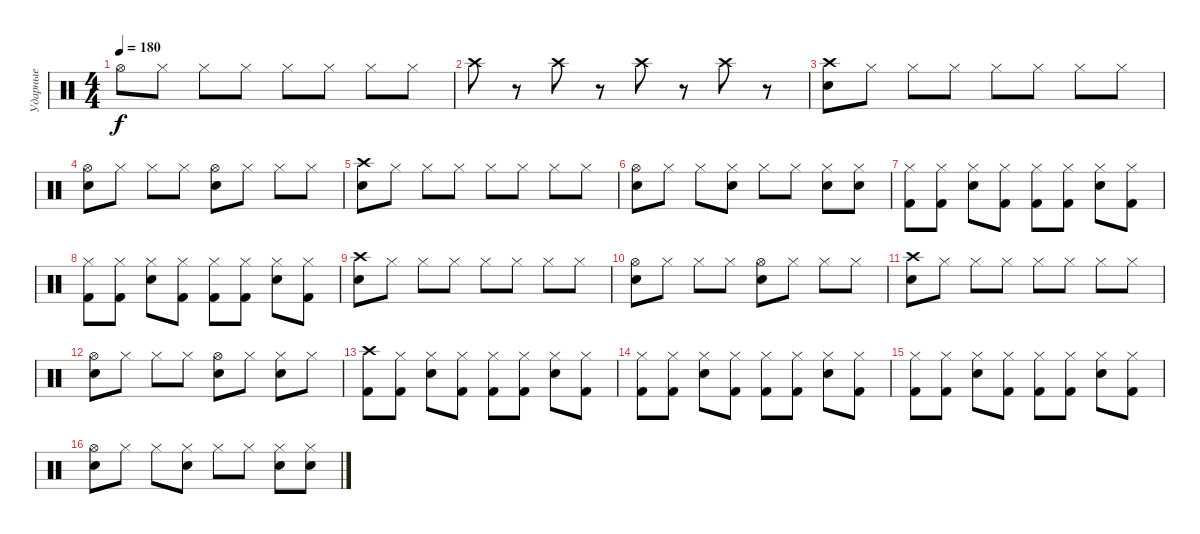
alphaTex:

\track ("Ударные" "Ударные") {instrument percussion}
\staff {score}
\articulation defaults
\ts (4 4)
\tempo 180
\clef neutral
\ks c "Hi-Hat (open)".8{dy f} "Hi-Hat (closed)".8 "Hi-Hat (closed)".8 "Hi-Hat (closed)".8 "Hi-Hat (closed)".8 "Hi-Hat (closed)".8 "Hi-Hat (closed)".8 "Hi-Hat (closed)".8
|
"Crash high (hit)".8 r.8 "Crash high (hit)".8 r.8 "Crash high (hit)".8 r.8 "Crash high (hit)".8 r.8 |
("Electric Snare (hit)" "Crash high (hit)").8 "Hi-Hat (closed)".8 "Hi-Hat (closed)".8 "Hi-Hat (closed)".8 "Hi-Hat (closed)".8 "Hi-Hat (closed)".8 "Hi-Hat (closed)".8 "Hi-Hat (closed)".8 |
("Electric Snare (hit)" "Hi-Hat (open)").8 "Hi-Hat (closed)".8 "Hi-Hat (closed)".8 "Hi-Hat (closed)".8 ("Snare (hit) 2" "Hi-Hat (open)").8 "Hi-Hat (closed)".8 "Hi-Hat (closed)".8 "Hi-Hat (closed)".8 |
("Electric Snare (hit)" "Crash high (hit)").8 "Hi-Hat (closed)".8 "Hi-Hat (closed)".8 "Hi-Hat (closed)".8 "Hi-Hat (closed)".8 "Hi-Hat (closed)".8 "Hi-Hat (closed)".8 "Hi-Hat (closed)".8 |
("Hi-Hat (open)" "Snare (hit) 2").8 "Hi-Hat (closed)".8 "Hi-Hat (closed)".8 ("Snare (hit) 2" "Hi-Hat (closed)").8 "Hi-Hat (closed)".8 "Hi-Hat (closed)".8 ("Hi-Hat (closed)" "Snare (hit) 2").8 ("Hi-Hat (closed)" "Snare (hit) 2").8 |
("Hi-Hat (closed)" "Kick (hit) 2").8 ("Hi-Hat (closed)" "Kick (hit) 2").8 ("Hi-Hat (closed)" "Snare (hit) 2").8 ("Kick (hit) 2" "Hi-Hat (closed)").8 ("Hi-Hat (closed)" "Kick (hit) 2").8 ("Hi-Hat (closed)" "Kick (hit) 2").8 ("Hi-Hat (closed)" "Snare (hit) 2").8 ("Kick (hit) 2" "Hi-Hat (closed)").8 |
("Hi-Hat (closed)" "Kick (hit) 2").8 ("Hi-Hat (closed)" "Kick (hit) 2").8 ("Hi-Hat (closed)" "Snare (hit) 2").8 ("Kick (hit) 2" "Hi-Hat (closed)").8 ("Hi-Hat (closed)" "Kick (hit) 2").8 ("Hi-Hat (closed)" "Kick (hit) 2").8 ("Hi-Hat (closed)" "Snare (hit) 2").8 ("Kick (hit) 2" "Hi-Hat (closed)").8 |
("Electric Snare (hit)" "Crash high (hit)").8 "Hi-Hat (closed)".8 "Hi-Hat (closed)".8 "Hi-Hat (closed)".8 "Hi-Hat (closed)".8 "Hi-Hat (closed)".8 "Hi-Hat (closed)".8 "Hi-Hat (closed)".8 |
("Electric Snare (hit)" "Hi-Hat (open)").8 "Hi-Hat (closed)".8 "Hi-Hat (closed)".8 "Hi-Hat (closed)".8 ("Snare (hit) 2" "Hi-Hat (open)").8 "Hi-Hat (closed)".8 "Hi-Hat (closed)".8 "Hi-Hat (closed)".8 |
("Electric Snare (hit)" "Crash high (hit)").8 "Hi-Hat (closed)".8 "Hi-Hat (closed)".8 "Hi-Hat (closed)".8 "Hi-Hat (closed)".8 "Hi-Hat (closed)".8 "Hi-Hat (closed)".8 "Hi-Hat (closed)".8 |
("Electric Snare (hit)" "Hi-Hat (open)").8 "Hi-Hat (closed)".8 "Hi-Hat (closed)".8 "Hi-Hat (closed)".8 ("Snare (hit) 2" "Hi-Hat (open)").8 "Hi-Hat (closed)".8 ("Snare (hit) 2" "Hi-Hat (closed)").8 "Hi-Hat (closed)".8 |
("Crash high (hit)" "Kick (hit) 2").8 ("Hi-Hat (closed)" "Kick (hit) 2").8 ("Hi-Hat (closed)" "Snare (hit) 2").8 ("Kick (hit) 2" "Hi-Hat (closed)").8 ("Hi-Hat (closed)" "Kick (hit) 2").8 ("Kick (hit) 2" "Hi-Hat (closed)").8 ("Electric Snare (hit)" "Hi-Hat (closed)").8 ("Kick (hit) 2" "Hi-Hat (closed)").8 |
("Hi-Hat (closed)" "Kick (hit) 2").8 ("Hi-Hat (closed)" "Kick (hit) 2").8 ("Hi-Hat (closed)" "Snare (hit) 2").8 ("Kick (hit) 2" "Hi-Hat (closed)").8 ("Hi-Hat (closed)" "Kick (hit) 2").8 ("Hi-Hat (closed)" "Kick (hit) 2").8 ("Hi-Hat (closed)" "Snare (hit) 2").8 ("Kick (hit) 2" "Hi-Hat (closed)").8 |
("Hi-Hat (closed)" "Kick (hit) 2").8 ("Hi-Hat (closed)" "Kick (hit) 2").8 ("Hi-Hat (closed)" "Snare (hit) 2").8 ("Kick (hit) 2" "Hi-Hat (closed)").8 ("Hi-Hat (closed)" "Kick (hit) 2").8 ("Hi-Hat (closed)" "Kick (hit) 2").8 ("Hi-Hat (closed)" "Snare (hit) 2").8 ("Kick (hit) 2" "Hi-Hat (closed)").8 |
("Hi-Hat (open)" "Snare (hit) 2").8 "Hi-Hat (closed)".8 "Hi-Hat (closed)".8 ("Snare (hit) 2" "Hi-Hat (closed)").8 "Hi-Hat (closed)".8 "Hi-Hat (closed)".8 ("Hi-Hat (closed)" "Snare (hit) 2").8 ("Hi-Hat (closed)" "Snare (hit) 2").8
